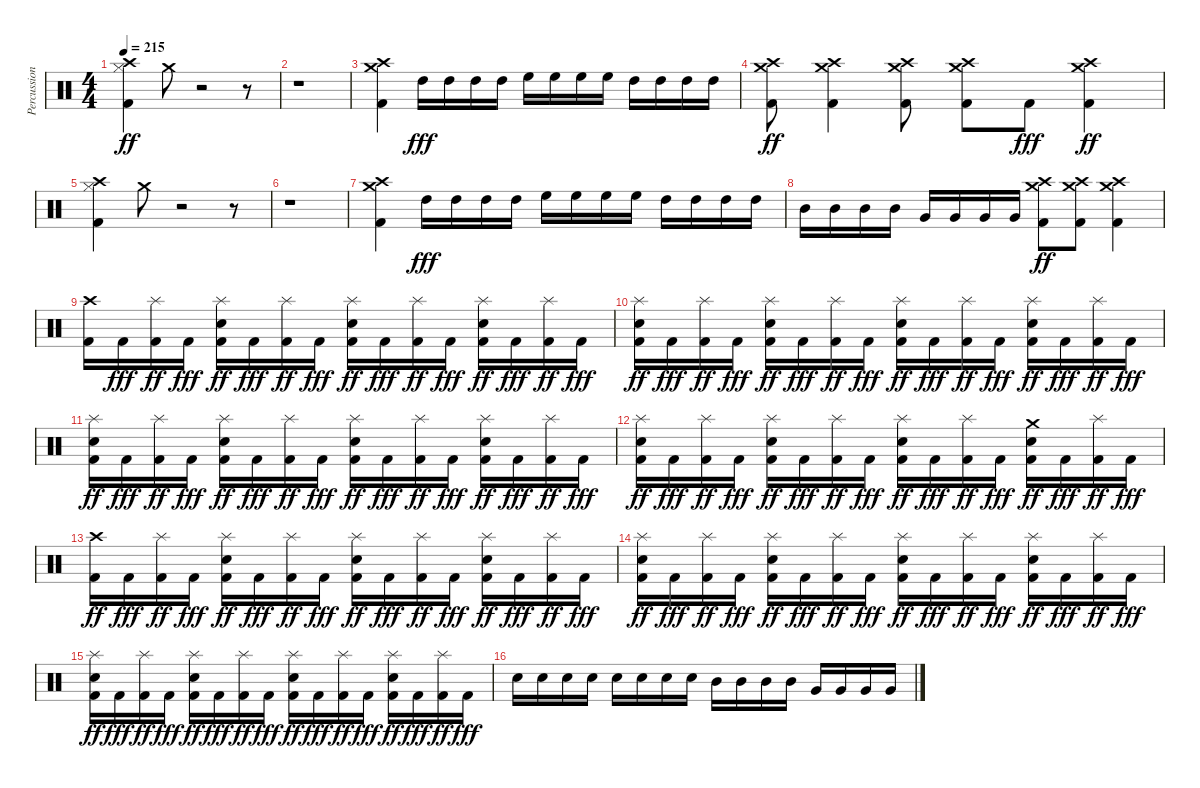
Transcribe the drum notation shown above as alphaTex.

\track ("Percussion" "Percussion") {instrument percussion}
\staff {score}
\articulation defaults
\ts (4 4)
\tempo 215
\clef neutral
\ks c
("Kick (hit) 2" "Crash high (hit)" "Hi-Hat (closed)").4{dy ff} "Crash medium (hit)".8{volume 0} r.2 r.8 |
r.1 |
("Kick (hit) 2" "Crash medium (hit)" "Crash high (hit)").4{volume 16} "High Tom (hit)".16{dy fff} "High Tom (hit)".16 "High Tom (hit)".16 "High Tom (hit)".16 "High Floor Tom (hit)".16 "High Floor Tom (hit)".16 "High Floor Tom (hit)".16 "High Floor Tom (hit)".16 "High Tom (hit)".16 "High Tom (hit)".16 "High Tom (hit)".16 "High Tom (hit)".16 |
("Kick (hit) 2" "Crash medium (hit)" "Crash high (hit)").8{dy ff} ("Kick (hit) 2" "Crash medium (hit)" "Crash high (hit)").4 ("Kick (hit) 2" "Crash medium (hit)" "Crash high (hit)").8 ("Kick (hit) 2" "Crash medium (hit)" "Crash high (hit)").8 "Kick (hit) 2".8{dy fff} ("Kick (hit) 2" "Crash medium (hit)" "Crash high (hit)").4{dy ff} |
("Kick (hit) 2" "Crash high (hit)" "Hi-Hat (closed)").4 "Crash medium (hit)".8{volume 0} r.2 r.8 |
r.1 |
("Kick (hit) 2" "Crash medium (hit)" "Crash high (hit)").4{volume 16} "High Tom (hit)".16{dy fff} "High Tom (hit)".16 "High Tom (hit)".16 "High Tom (hit)".16 "High Floor Tom (hit)".16 "High Floor Tom (hit)".16 "High Floor Tom (hit)".16 "High Floor Tom (hit)".16 "High Tom (hit)".16 "High Tom (hit)".16 "High Tom (hit)".16 "High Tom (hit)".16 |
"Mid Tom (hit)".16 "Mid Tom (hit)".16 "Mid Tom (hit)".16 "Mid Tom (hit)".16 "Very Low Tom (hit)".16 "Very Low Tom (hit)".16 "Very Low Tom (hit)".16 "Very Low Tom (hit)".16 ("Kick (hit) 2" "Crash medium (hit)" "Crash high (hit)").8{dy ff} ("Kick (hit) 2" "Crash medium (hit)" "Crash high (hit)").8 ("Kick (hit) 2" "Crash medium (hit)" "Crash high (hit)").4 |
("Kick (hit) 2" "Crash high (hit)").16 "Kick (hit) 2".16{dy fff} ("Kick (hit) 2" "Splash (hit)").16{dy ff} "Kick (hit) 2".16{dy fff} ("Kick (hit) 2" "Electric Snare (hit)" "Splash (hit)").16{dy ff} "Kick (hit) 2".16{dy fff} ("Kick (hit) 2" "Splash (hit)").16{dy ff} "Kick (hit) 2".16{dy fff} ("Kick (hit) 2" "Electric Snare (hit)" "Splash (hit)").16{dy ff} "Kick (hit) 2".16{dy fff} ("Kick (hit) 2" "Splash (hit)").16{dy ff} "Kick (hit) 2".16{dy fff} ("Kick (hit) 2" "Electric Snare (hit)" "Splash (hit)").16{dy ff} "Kick (hit) 2".16{dy fff} ("Kick (hit) 2" "Splash (hit)").16{dy ff} "Kick (hit) 2".16{dy fff} |
("Kick (hit) 2" "Electric Snare (hit)" "Splash (hit)").16{dy ff} "Kick (hit) 2".16{dy fff} ("Kick (hit) 2" "Splash (hit)").16{dy ff} "Kick (hit) 2".16{dy fff} ("Kick (hit) 2" "Electric Snare (hit)" "Splash (hit)").16{dy ff} "Kick (hit) 2".16{dy fff} ("Kick (hit) 2" "Splash (hit)").16{dy ff} "Kick (hit) 2".16{dy fff} ("Kick (hit) 2" "Electric Snare (hit)" "Splash (hit)").16{dy ff} "Kick (hit) 2".16{dy fff} ("Kick (hit) 2" "Splash (hit)").16{dy ff} "Kick (hit) 2".16{dy fff} ("Kick (hit) 2" "Electric Snare (hit)" "Splash (hit)").16{dy ff} "Kick (hit) 2".16{dy fff} ("Kick (hit) 2" "Splash (hit)").16{dy ff} "Kick (hit) 2".16{dy fff} |
("Kick (hit) 2" "Electric Snare (hit)" "Splash (hit)").16{dy ff} "Kick (hit) 2".16{dy fff} ("Kick (hit) 2" "Splash (hit)").16{dy ff} "Kick (hit) 2".16{dy fff} ("Kick (hit) 2" "Electric Snare (hit)" "Splash (hit)").16{dy ff} "Kick (hit) 2".16{dy fff} ("Kick (hit) 2" "Splash (hit)").16{dy ff} "Kick (hit) 2".16{dy fff} ("Kick (hit) 2" "Electric Snare (hit)" "Splash (hit)").16{dy ff} "Kick (hit) 2".16{dy fff} ("Kick (hit) 2" "Splash (hit)").16{dy ff} "Kick (hit) 2".16{dy fff} ("Kick (hit) 2" "Electric Snare (hit)" "Splash (hit)").16{dy ff} "Kick (hit) 2".16{dy fff} ("Kick (hit) 2" "Splash (hit)").16{dy ff} "Kick (hit) 2".16{dy fff} |
("Kick (hit) 2" "Electric Snare (hit)" "Splash (hit)").16{dy ff} "Kick (hit) 2".16{dy fff} ("Kick (hit) 2" "Splash (hit)").16{dy ff} "Kick (hit) 2".16{dy fff} ("Kick (hit) 2" "Electric Snare (hit)" "Splash (hit)").16{dy ff} "Kick (hit) 2".16{dy fff} ("Kick (hit) 2" "Splash (hit)").16{dy ff} "Kick (hit) 2".16{dy fff} ("Kick (hit) 2" "Electric Snare (hit)" "Splash (hit)").16{dy ff} "Kick (hit) 2".16{dy fff} ("Kick (hit) 2" "Splash (hit)").16{dy ff} "Kick (hit) 2".16{dy fff} ("Kick (hit) 2" "Electric Snare (hit)" "Crash medium (hit)").16{dy ff} "Kick (hit) 2".16{dy fff} ("Kick (hit) 2" "Splash (hit)").16{dy ff} "Kick (hit) 2".16{dy fff} |
("Kick (hit) 2" "Crash high (hit)").16{dy ff} "Kick (hit) 2".16{dy fff} ("Kick (hit) 2" "Splash (hit)").16{dy ff} "Kick (hit) 2".16{dy fff} ("Kick (hit) 2" "Electric Snare (hit)" "Splash (hit)").16{dy ff} "Kick (hit) 2".16{dy fff} ("Kick (hit) 2" "Splash (hit)").16{dy ff} "Kick (hit) 2".16{dy fff} ("Kick (hit) 2" "Electric Snare (hit)" "Splash (hit)").16{dy ff} "Kick (hit) 2".16{dy fff} ("Kick (hit) 2" "Splash (hit)").16{dy ff} "Kick (hit) 2".16{dy fff} ("Kick (hit) 2" "Electric Snare (hit)" "Splash (hit)").16{dy ff} "Kick (hit) 2".16{dy fff} ("Kick (hit) 2" "Splash (hit)").16{dy ff} "Kick (hit) 2".16{dy fff} |
("Kick (hit) 2" "Electric Snare (hit)" "Splash (hit)").16{dy ff} "Kick (hit) 2".16{dy fff} ("Kick (hit) 2" "Splash (hit)").16{dy ff} "Kick (hit) 2".16{dy fff} ("Kick (hit) 2" "Electric Snare (hit)" "Splash (hit)").16{dy ff} "Kick (hit) 2".16{dy fff} ("Kick (hit) 2" "Splash (hit)").16{dy ff} "Kick (hit) 2".16{dy fff} ("Kick (hit) 2" "Electric Snare (hit)" "Splash (hit)").16{dy ff} "Kick (hit) 2".16{dy fff} ("Kick (hit) 2" "Splash (hit)").16{dy ff} "Kick (hit) 2".16{dy fff} ("Kick (hit) 2" "Electric Snare (hit)" "Splash (hit)").16{dy ff} "Kick (hit) 2".16{dy fff} ("Kick (hit) 2" "Splash (hit)").16{dy ff} "Kick (hit) 2".16{dy fff} |
("Kick (hit) 2" "Electric Snare (hit)" "Splash (hit)").16{dy ff} "Kick (hit) 2".16{dy fff} ("Kick (hit) 2" "Splash (hit)").16{dy ff} "Kick (hit) 2".16{dy fff} ("Kick (hit) 2" "Electric Snare (hit)" "Splash (hit)").16{dy ff} "Kick (hit) 2".16{dy fff} ("Kick (hit) 2" "Splash (hit)").16{dy ff} "Kick (hit) 2".16{dy fff} ("Kick (hit) 2" "Electric Snare (hit)" "Splash (hit)").16{dy ff} "Kick (hit) 2".16{dy fff} ("Kick (hit) 2" "Splash (hit)").16{dy ff} "Kick (hit) 2".16{dy fff} ("Kick (hit) 2" "Electric Snare (hit)" "Splash (hit)").16{dy ff} "Kick (hit) 2".16{dy fff} ("Kick (hit) 2" "Splash (hit)").16{dy ff} "Kick (hit) 2".16{dy fff} |
"Electric Snare (hit)".16 "Electric Snare (hit)".16 "Electric Snare (hit)".16 "Electric Snare (hit)".16 "Electric Snare (hit)".16 "Electric Snare (hit)".16 "Electric Snare (hit)".16 "Electric Snare (hit)".16 "Mid Tom (hit)".16 "Mid Tom (hit)".16 "Mid Tom (hit)".16 "Mid Tom (hit)".16 "Very Low Tom (hit)".16 "Very Low Tom (hit)".16 "Very Low Tom (hit)".16 "Very Low Tom (hit)".16
